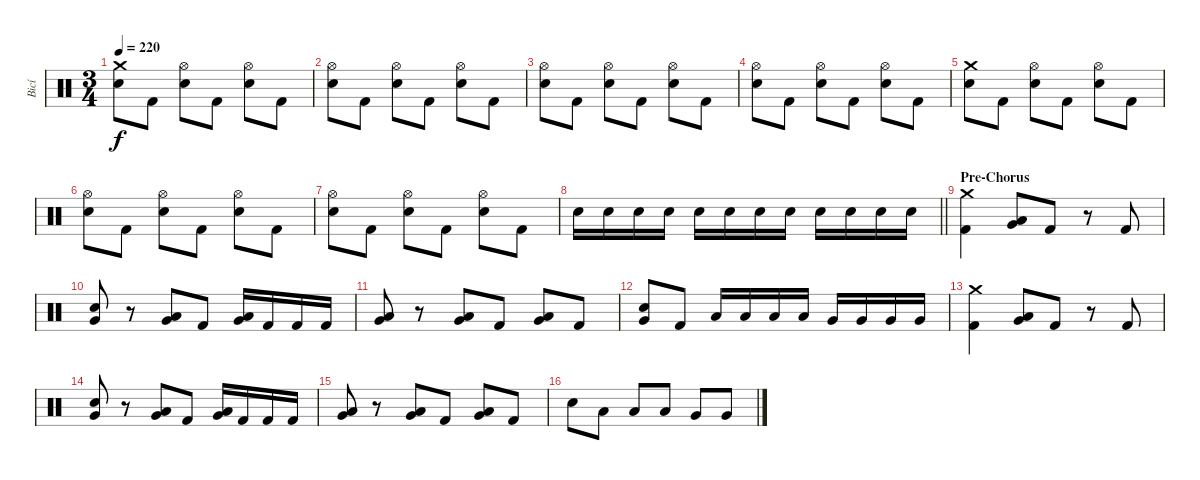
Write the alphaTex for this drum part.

\track ("Bicí" "Bicí") {instrument percussion}
\staff {score}
\articulation defaults
\ts (3 4)
\tempo 220
\clef neutral
\ks c
("Crash medium (hit)" "Electric Snare (hit)").8{dy f} "Kick (hit) 2".8 ("Hi-Hat (open)" "Electric Snare (hit)").8 "Kick (hit) 2".8 ("Hi-Hat (open)" "Electric Snare (hit)").8 "Kick (hit) 2".8 |
("Hi-Hat (open)" "Electric Snare (hit)").8 "Kick (hit) 2".8 ("Hi-Hat (open)" "Electric Snare (hit)").8 "Kick (hit) 2".8 ("Hi-Hat (open)" "Electric Snare (hit)").8 "Kick (hit) 2".8 |
("Hi-Hat (open)" "Electric Snare (hit)").8 "Kick (hit) 2".8 ("Hi-Hat (open)" "Electric Snare (hit)").8 "Kick (hit) 2".8 ("Hi-Hat (open)" "Electric Snare (hit)").8 "Kick (hit) 2".8 |
("Hi-Hat (open)" "Electric Snare (hit)").8 "Kick (hit) 2".8 ("Hi-Hat (open)" "Electric Snare (hit)").8 "Kick (hit) 2".8 ("Hi-Hat (open)" "Electric Snare (hit)").8 "Kick (hit) 2".8 |
("Crash medium (hit)" "Electric Snare (hit)").8 "Kick (hit) 2".8 ("Hi-Hat (open)" "Electric Snare (hit)").8 "Kick (hit) 2".8 ("Hi-Hat (open)" "Electric Snare (hit)").8 "Kick (hit) 2".8 |
("Hi-Hat (open)" "Electric Snare (hit)").8 "Kick (hit) 2".8 ("Hi-Hat (open)" "Electric Snare (hit)").8 "Kick (hit) 2".8 ("Hi-Hat (open)" "Electric Snare (hit)").8 "Kick (hit) 2".8 |
("Hi-Hat (open)" "Electric Snare (hit)").8 "Kick (hit) 2".8 ("Hi-Hat (open)" "Electric Snare (hit)").8 "Kick (hit) 2".8 ("Hi-Hat (open)" "Electric Snare (hit)").8 "Kick (hit) 2".8 |
\barLineRight lightlight "Electric Snare (hit)".16 "Electric Snare (hit)".16 "Electric Snare (hit)".16 "Electric Snare (hit)".16 "Electric Snare (hit)".16 "Electric Snare (hit)".16 "Electric Snare (hit)".16 "Electric Snare (hit)".16 "Electric Snare (hit)".16 "Electric Snare (hit)".16 "Electric Snare (hit)".16 "Electric Snare (hit)".16
|
\section ("" "Pre-Chorus")
("Crash medium (hit)" "Kick (hit) 2").4 ("Low Tom (hit)" "Very Low Tom (hit)").8 "Kick (hit) 2".8 r.8 "Kick (hit) 2".8 |
("Electric Snare (hit)" "Very Low Tom (hit)").8 r.8 ("Low Tom (hit)" "Very Low Tom (hit)").8 "Kick (hit) 2".8 ("Low Tom (hit)" "Very Low Tom (hit)").16 "Kick (hit) 2".16 "Kick (hit) 2".16 "Kick (hit) 2".16 |
("Low Tom (hit)" "Very Low Tom (hit)").8 r.8 ("Low Tom (hit)" "Very Low Tom (hit)").8 "Kick (hit) 2".8 ("Low Tom (hit)" "Very Low Tom (hit)").8 "Kick (hit) 2".8 |
("Electric Snare (hit)" "Very Low Tom (hit)").8 "Kick (hit) 2".8 "Low Tom (hit)".16 "Low Tom (hit)".16 "Low Tom (hit)".16 "Low Tom (hit)".16 "Very Low Tom (hit)".16 "Very Low Tom (hit)".16 "Very Low Tom (hit)".16 "Very Low Tom (hit)".16 |
("Crash medium (hit)" "Kick (hit) 2").4 ("Low Tom (hit)" "Very Low Tom (hit)").8 "Kick (hit) 2".8 r.8 "Kick (hit) 2".8 |
("Electric Snare (hit)" "Very Low Tom (hit)").8 r.8 ("Low Tom (hit)" "Very Low Tom (hit)").8 "Kick (hit) 2".8 ("Low Tom (hit)" "Very Low Tom (hit)").16 "Kick (hit) 2".16 "Kick (hit) 2".16 "Kick (hit) 2".16 |
("Low Tom (hit)" "Very Low Tom (hit)").8 r.8 ("Low Tom (hit)" "Very Low Tom (hit)").8 "Kick (hit) 2".8 ("Low Tom (hit)" "Very Low Tom (hit)").8 "Kick (hit) 2".8 |
"Electric Snare (hit)".8 "Low Tom (hit)".8 "Low Tom (hit)".8 "Low Tom (hit)".8 "Very Low Tom (hit)".8 "Very Low Tom (hit)".8
